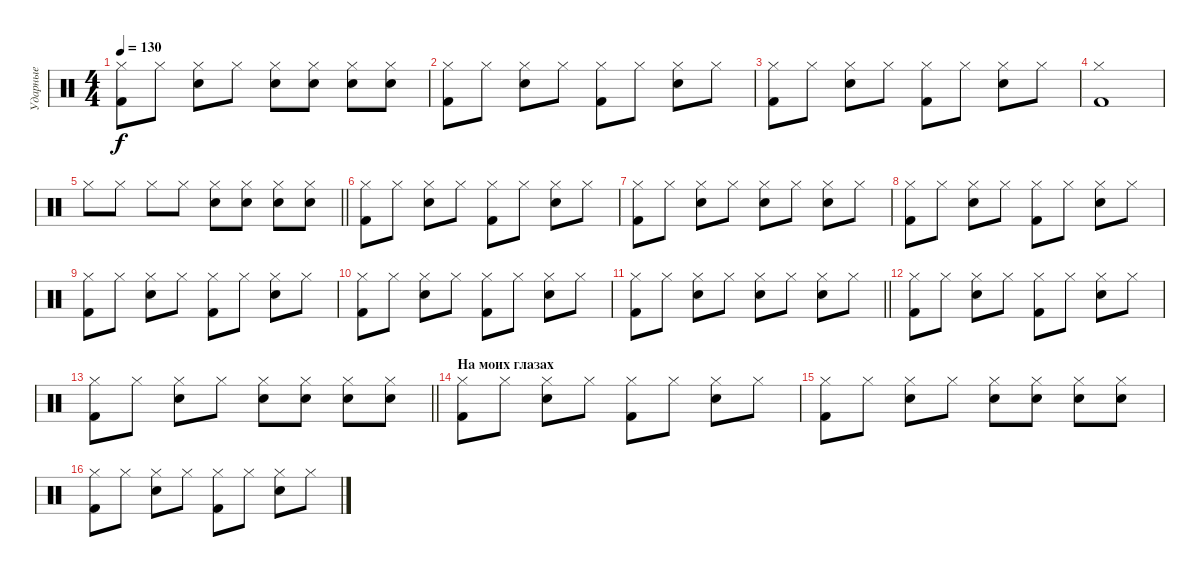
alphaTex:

\track ("Ударные" "Ударные") {instrument percussion}
\staff {score}
\articulation defaults
\ts (4 4)
\tempo 130
\clef neutral
\ks c
("Hi-Hat (closed)" "Kick (hit) 2").8{dy f} "Hi-Hat (closed)".8 ("Hi-Hat (closed)" "Snare (hit) 2").8 "Hi-Hat (closed)".8 ("Hi-Hat (closed)" "Snare (hit) 2").8 ("Hi-Hat (closed)" "Snare (hit) 2").8 ("Hi-Hat (closed)" "Snare (hit) 2").8 ("Hi-Hat (closed)" "Snare (hit) 2").8 |
("Hi-Hat (closed)" "Kick (hit) 2").8 "Hi-Hat (closed)".8 ("Hi-Hat (closed)" "Snare (hit) 2").8 "Hi-Hat (closed)".8 ("Hi-Hat (closed)" "Kick (hit) 2").8 "Hi-Hat (closed)".8 ("Hi-Hat (closed)" "Snare (hit) 2").8 "Hi-Hat (closed)".8 |
("Hi-Hat (closed)" "Kick (hit) 2").8 "Hi-Hat (closed)".8 ("Hi-Hat (closed)" "Snare (hit) 2").8 "Hi-Hat (closed)".8 ("Hi-Hat (closed)" "Kick (hit) 2").8 "Hi-Hat (closed)".8 ("Hi-Hat (closed)" "Snare (hit) 2").8 "Hi-Hat (closed)".8 |
("Hi-Hat (closed)" "Kick (hit) 2").1 |
\barLineRight lightlight "Hi-Hat (closed)".8 "Hi-Hat (closed)".8 "Hi-Hat (closed)".8 "Hi-Hat (closed)".8
("Hi-Hat (closed)" "Snare (hit) 2").8 ("Hi-Hat (closed)" "Snare (hit) 2").8 ("Hi-Hat (closed)" "Snare (hit) 2").8 ("Hi-Hat (closed)" "Snare (hit) 2").8 |
("Hi-Hat (closed)" "Kick (hit) 2").8 "Hi-Hat (closed)".8 ("Hi-Hat (closed)" "Snare (hit) 2").8 "Hi-Hat (closed)".8 ("Hi-Hat (closed)" "Kick (hit) 2").8 "Hi-Hat (closed)".8 ("Hi-Hat (closed)" "Snare (hit) 2").8 "Hi-Hat (closed)".8 |
("Hi-Hat (closed)" "Kick (hit) 2").8 "Hi-Hat (closed)".8 ("Hi-Hat (closed)" "Snare (hit) 2").8 "Hi-Hat (closed)".8 ("Hi-Hat (closed)" "Snare (hit) 2").8 "Hi-Hat (closed)".8 ("Hi-Hat (closed)" "Snare (hit) 2").8 "Hi-Hat (closed)".8 |
("Hi-Hat (closed)" "Kick (hit) 2").8 "Hi-Hat (closed)".8 ("Hi-Hat (closed)" "Snare (hit) 2").8 "Hi-Hat (closed)".8 ("Hi-Hat (closed)" "Kick (hit) 2").8 "Hi-Hat (closed)".8 ("Hi-Hat (closed)" "Snare (hit) 2").8 "Hi-Hat (closed)".8 |
("Hi-Hat (closed)" "Kick (hit) 2").8 "Hi-Hat (closed)".8 ("Hi-Hat (closed)" "Snare (hit) 2").8 "Hi-Hat (closed)".8 ("Hi-Hat (closed)" "Kick (hit) 2").8 "Hi-Hat (closed)".8 ("Hi-Hat (closed)" "Snare (hit) 2").8 "Hi-Hat (closed)".8 |
("Hi-Hat (closed)" "Kick (hit) 2").8 "Hi-Hat (closed)".8 ("Hi-Hat (closed)" "Snare (hit) 2").8 "Hi-Hat (closed)".8 ("Hi-Hat (closed)" "Kick (hit) 2").8 "Hi-Hat (closed)".8 ("Hi-Hat (closed)" "Snare (hit) 2").8 "Hi-Hat (closed)".8 |
\barLineRight lightlight
("Hi-Hat (closed)" "Kick (hit) 2").8 "Hi-Hat (closed)".8 ("Hi-Hat (closed)" "Snare (hit) 2").8 "Hi-Hat (closed)".8 ("Hi-Hat (closed)" "Snare (hit) 2").8 "Hi-Hat (closed)".8 ("Hi-Hat (closed)" "Snare (hit) 2").8 "Hi-Hat (closed)".8 |
("Hi-Hat (closed)" "Kick (hit) 2").8 "Hi-Hat (closed)".8 ("Hi-Hat (closed)" "Snare (hit) 2").8 "Hi-Hat (closed)".8 ("Hi-Hat (closed)" "Kick (hit) 2").8 "Hi-Hat (closed)".8 ("Hi-Hat (closed)" "Snare (hit) 2").8 "Hi-Hat (closed)".8 |
\barLineRight lightlight
("Hi-Hat (closed)" "Kick (hit) 2").8 "Hi-Hat (closed)".8 ("Hi-Hat (closed)" "Snare (hit) 2").8 "Hi-Hat (closed)".8 ("Hi-Hat (closed)" "Snare (hit) 2").8 ("Hi-Hat (closed)" "Snare (hit) 2").8 ("Hi-Hat (closed)" "Snare (hit) 2").8 ("Hi-Hat (closed)" "Snare (hit) 2").8 |
\section ("" "На моих глазах")
("Hi-Hat (closed)" "Kick (hit) 2").8 "Hi-Hat (closed)".8 ("Hi-Hat (closed)" "Snare (hit) 2").8 "Hi-Hat (closed)".8 ("Hi-Hat (closed)" "Kick (hit) 2").8 "Hi-Hat (closed)".8 ("Hi-Hat (closed)" "Snare (hit) 2").8 "Hi-Hat (closed)".8 |
("Hi-Hat (closed)" "Kick (hit) 2").8 "Hi-Hat (closed)".8 ("Hi-Hat (closed)" "Snare (hit) 2").8 "Hi-Hat (closed)".8 ("Hi-Hat (closed)" "Snare (hit) 2").8 ("Hi-Hat (closed)" "Snare (hit) 2").8 ("Hi-Hat (closed)" "Snare (hit) 2").8 ("Hi-Hat (closed)" "Snare (hit) 2").8 |
("Hi-Hat (closed)" "Kick (hit) 2").8 "Hi-Hat (closed)".8 ("Hi-Hat (closed)" "Snare (hit) 2").8 "Hi-Hat (closed)".8 ("Hi-Hat (closed)" "Kick (hit) 2").8 "Hi-Hat (closed)".8 ("Hi-Hat (closed)" "Snare (hit) 2").8 "Hi-Hat (closed)".8
